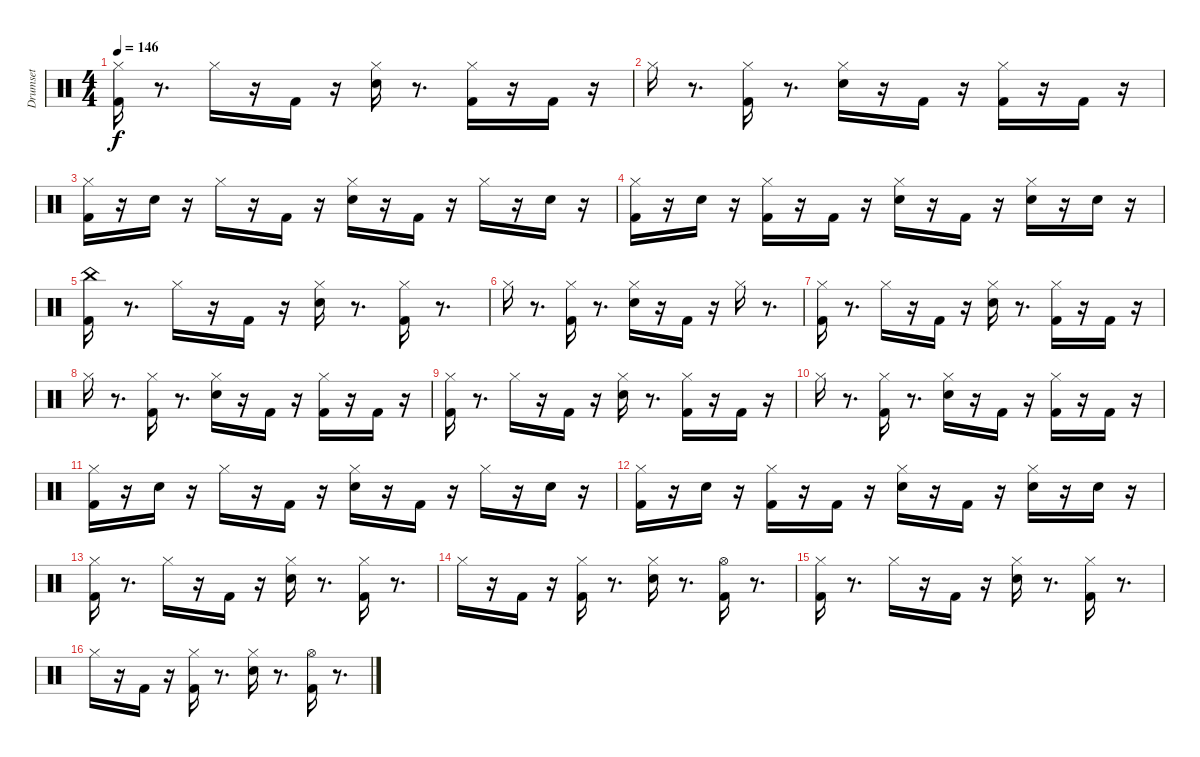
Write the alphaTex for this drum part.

\track ("Drumset" "Drumset") {instrument percussion}
\staff {score}
\articulation defaults
\ts (4 4)
\tempo 146
\clef neutral
\ks c
("Kick (hit) 2" "Hi-Hat (closed)").16{dy f} r.8{d} "Hi-Hat (closed)".16 r.16 "Kick (hit) 2".16 r.16 ("Electric Snare (hit)" "Hi-Hat (closed)").16 r.8{d} ("Kick (hit) 2" "Hi-Hat (closed)").16 r.16 "Kick (hit) 2".16 r.16 |
"Hi-Hat (closed)".16 r.8{d} ("Kick (hit) 2" "Hi-Hat (closed)").16 r.8{d} ("Electric Snare (hit)" "Hi-Hat (closed)").16 r.16 "Kick (hit) 2".16 r.16 ("Kick (hit) 2" "Hi-Hat (closed)").16 r.16 "Kick (hit) 2".16 r.16 |
("Kick (hit) 2" "Hi-Hat (closed)").16 r.16 "Electric Snare (hit)".16 r.16 "Hi-Hat (closed)".16 r.16 "Kick (hit) 2".16 r.16 ("Electric Snare (hit)" "Hi-Hat (closed)").16 r.16 "Kick (hit) 2".16 r.16 "Hi-Hat (closed)".16 r.16 "Electric Snare (hit)".16 r.16 |
("Kick (hit) 2" "Hi-Hat (closed)").16 r.16 "Electric Snare (hit)".16 r.16 ("Kick (hit) 2" "Hi-Hat (closed)").16 r.16 "Kick (hit) 2".16 r.16 ("Electric Snare (hit)" "Hi-Hat (closed)").16 r.16 "Kick (hit) 2".16 r.16 ("Electric Snare (hit)" "Hi-Hat (closed)").16 r.16 "Electric Snare (hit)".16 r.16 |
("Kick (hit) 2" "China (hit)").16 r.8{d} "Hi-Hat (closed)".16 r.16 "Kick (hit) 2".16 r.16 ("Electric Snare (hit)" "Hi-Hat (closed)").16 r.8{d} ("Kick (hit) 2" "Hi-Hat (closed)").16 r.8{d} |
"Hi-Hat (closed)".16 r.8{d} ("Kick (hit) 2" "Hi-Hat (closed)").16 r.8{d} ("Electric Snare (hit)" "Hi-Hat (closed)").16 r.16 "Kick (hit) 2".16 r.16 "Hi-Hat (closed)".16 r.8{d} |
("Kick (hit) 2" "Hi-Hat (closed)").16 r.8{d} "Hi-Hat (closed)".16 r.16 "Kick (hit) 2".16 r.16 ("Electric Snare (hit)" "Hi-Hat (closed)").16 r.8{d} ("Kick (hit) 2" "Hi-Hat (closed)").16 r.16 "Kick (hit) 2".16 r.16 |
"Hi-Hat (closed)".16 r.8{d} ("Kick (hit) 2" "Hi-Hat (closed)").16 r.8{d} ("Electric Snare (hit)" "Hi-Hat (closed)").16 r.16 "Kick (hit) 2".16 r.16 ("Kick (hit) 2" "Hi-Hat (closed)").16 r.16 "Kick (hit) 2".16 r.16 |
("Kick (hit) 2" "Hi-Hat (closed)").16 r.8{d} "Hi-Hat (closed)".16 r.16 "Kick (hit) 2".16 r.16 ("Electric Snare (hit)" "Hi-Hat (closed)").16 r.8{d} ("Kick (hit) 2" "Hi-Hat (closed)").16 r.16 "Kick (hit) 2".16 r.16 |
"Hi-Hat (closed)".16 r.8{d} ("Kick (hit) 2" "Hi-Hat (closed)").16 r.8{d} ("Electric Snare (hit)" "Hi-Hat (closed)").16 r.16 "Kick (hit) 2".16 r.16 ("Kick (hit) 2" "Hi-Hat (closed)").16 r.16 "Kick (hit) 2".16 r.16 |
("Kick (hit) 2" "Hi-Hat (closed)").16 r.16 "Electric Snare (hit)".16 r.16 "Hi-Hat (closed)".16 r.16 "Kick (hit) 2".16 r.16 ("Electric Snare (hit)" "Hi-Hat (closed)").16 r.16 "Kick (hit) 2".16 r.16 "Hi-Hat (closed)".16 r.16 "Electric Snare (hit)".16 r.16 |
("Kick (hit) 2" "Hi-Hat (closed)").16 r.16 "Electric Snare (hit)".16 r.16 ("Kick (hit) 2" "Hi-Hat (closed)").16 r.16 "Kick (hit) 2".16 r.16 ("Electric Snare (hit)" "Hi-Hat (closed)").16 r.16 "Kick (hit) 2".16 r.16 ("Electric Snare (hit)" "Hi-Hat (closed)").16 r.16 "Electric Snare (hit)".16 r.16 |
("Kick (hit) 2" "Hi-Hat (closed)").16 r.8{d} "Hi-Hat (closed)".16 r.16 "Kick (hit) 2".16 r.16 ("Electric Snare (hit)" "Hi-Hat (closed)").16 r.8{d} ("Kick (hit) 2" "Hi-Hat (closed)").16 r.8{d} |
"Hi-Hat (closed)".16 r.16 "Kick (hit) 2".16 r.16 ("Kick (hit) 2" "Hi-Hat (closed)").16 r.8{d} ("Electric Snare (hit)" "Hi-Hat (closed)").16 r.8{d} ("Kick (hit) 2" "Hi-Hat (open)").16 r.8{d} |
("Kick (hit) 2" "Hi-Hat (closed)").16 r.8{d} "Hi-Hat (closed)".16 r.16 "Kick (hit) 2".16 r.16 ("Electric Snare (hit)" "Hi-Hat (closed)").16 r.8{d} ("Kick (hit) 2" "Hi-Hat (closed)").16 r.8{d} |
"Hi-Hat (closed)".16 r.16 "Kick (hit) 2".16 r.16 ("Kick (hit) 2" "Hi-Hat (closed)").16 r.8{d} ("Electric Snare (hit)" "Hi-Hat (closed)").16 r.8{d} ("Kick (hit) 2" "Hi-Hat (open)").16 r.8{d}
